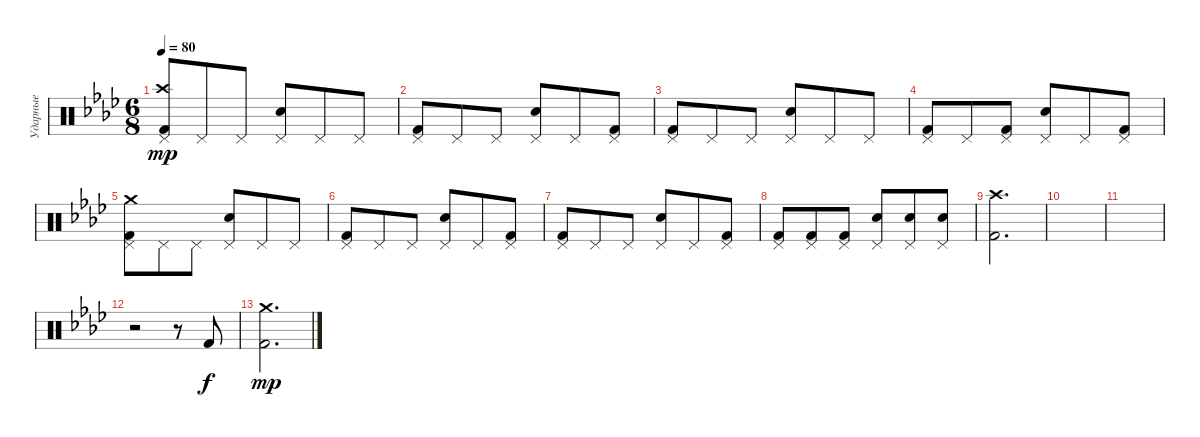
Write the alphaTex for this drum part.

\track ("Ударные" "Ударные") {instrument percussion}
\staff {score}
\articulation defaults
\ts (6 8)
\tempo 80
\clef neutral
\ks fminor
("Pedal Hi-Hat (hit)" "Crash high (hit)" "Kick (hit) 2").8{dy mp} "Pedal Hi-Hat (hit)".8 "Pedal Hi-Hat (hit)".8 ("Pedal Hi-Hat (hit)" "Electric Snare (hit)").8 "Pedal Hi-Hat (hit)".8 "Pedal Hi-Hat (hit)".8 |
("Pedal Hi-Hat (hit)" "Kick (hit) 2").8 "Pedal Hi-Hat (hit)".8 "Pedal Hi-Hat (hit)".8 ("Pedal Hi-Hat (hit)" "Electric Snare (hit)").8 "Pedal Hi-Hat (hit)".8 ("Pedal Hi-Hat (hit)" "Kick (hit) 2").8 |
("Pedal Hi-Hat (hit)" "Kick (hit) 2").8 "Pedal Hi-Hat (hit)".8 "Pedal Hi-Hat (hit)".8 ("Pedal Hi-Hat (hit)" "Electric Snare (hit)").8 "Pedal Hi-Hat (hit)".8 "Pedal Hi-Hat (hit)".8 |
("Pedal Hi-Hat (hit)" "Kick (hit) 2").8 "Pedal Hi-Hat (hit)".8 ("Pedal Hi-Hat (hit)" "Kick (hit) 2").8 ("Pedal Hi-Hat (hit)" "Electric Snare (hit)").8 "Pedal Hi-Hat (hit)".8 ("Pedal Hi-Hat (hit)" "Kick (hit) 2").8 |
("Pedal Hi-Hat (hit)" "Crash medium (hit)" "Kick (hit) 2").8 "Pedal Hi-Hat (hit)".8 "Pedal Hi-Hat (hit)".8 ("Pedal Hi-Hat (hit)" "Electric Snare (hit)").8 "Pedal Hi-Hat (hit)".8 "Pedal Hi-Hat (hit)".8 |
("Pedal Hi-Hat (hit)" "Kick (hit) 2").8 "Pedal Hi-Hat (hit)".8 "Pedal Hi-Hat (hit)".8 ("Pedal Hi-Hat (hit)" "Electric Snare (hit)").8 "Pedal Hi-Hat (hit)".8 ("Pedal Hi-Hat (hit)" "Kick (hit) 2").8 |
("Pedal Hi-Hat (hit)" "Kick (hit) 2").8 "Pedal Hi-Hat (hit)".8 "Pedal Hi-Hat (hit)".8 ("Pedal Hi-Hat (hit)" "Electric Snare (hit)").8 "Pedal Hi-Hat (hit)".8 ("Pedal Hi-Hat (hit)" "Kick (hit) 2").8 |
("Pedal Hi-Hat (hit)" "Kick (hit) 2").8 ("Pedal Hi-Hat (hit)" "Kick (hit) 2").8 ("Pedal Hi-Hat (hit)" "Kick (hit) 2").8 ("Pedal Hi-Hat (hit)" "Electric Snare (hit)").8 ("Pedal Hi-Hat (hit)" "Electric Snare (hit)").8 ("Pedal Hi-Hat (hit)" "Electric Snare (hit)").8 |
("Crash high (hit)" "Kick (hit) 2").2{d} |
|
|
r.2 r.8 "Kick (hit) 2".8{dy f} |
("Crash medium (hit)" "Kick (hit) 2").2{d dy mp}
